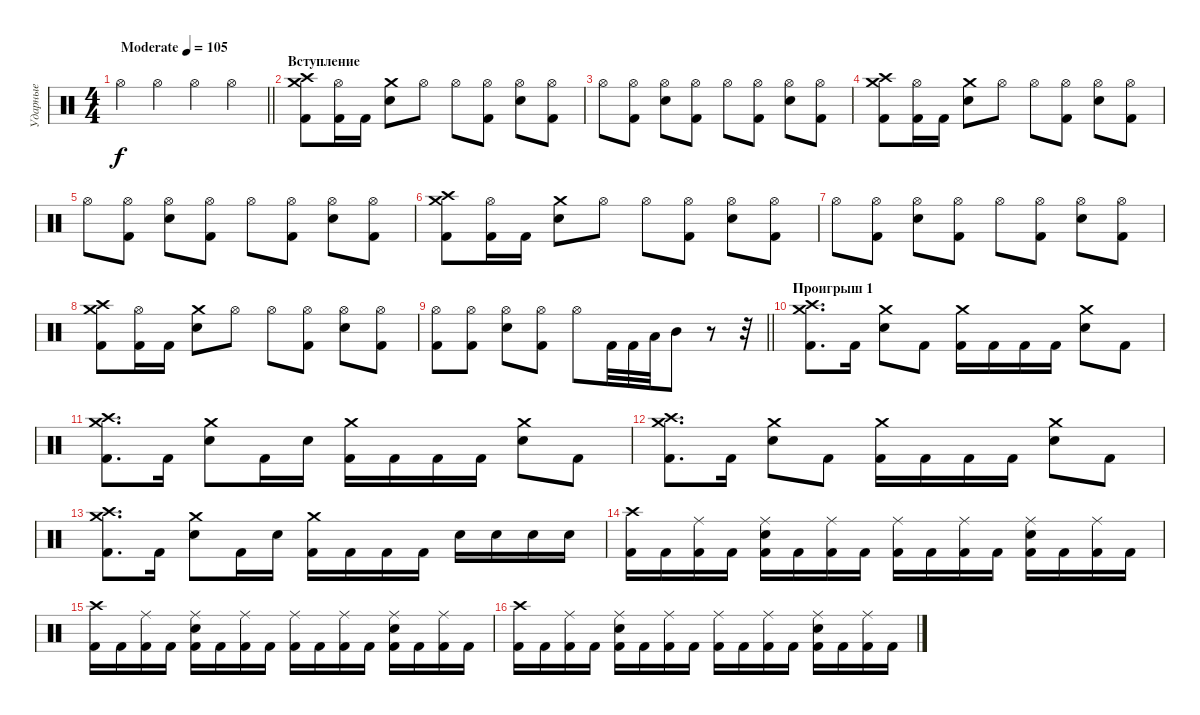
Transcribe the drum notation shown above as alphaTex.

\track ("Ударные" "Ударные") {instrument percussion}
\staff
\articulation defaults
\ts (4 4)
\tempo (105 "Moderate")
\clef neutral
\barLineRight lightlight
\ks c "Hi-Hat (open)".4{dy f} "Hi-Hat (open)".4 "Hi-Hat (open)".4 "Hi-Hat (open)".4
|
\section ("" "Вступление")
("Crash medium (hit)" "Crash high (hit)" "Kick (hit) 2").8 ("Hi-Hat (open)" "Kick (hit) 2").16 "Kick (hit) 2".16 ("Crash medium (hit)" "Electric Snare (hit)").8 "Hi-Hat (open)".8 "Hi-Hat (open)".8 ("Hi-Hat (open)" "Kick (hit) 2").8 ("Hi-Hat (open)" "Electric Snare (hit)").8 ("Hi-Hat (open)" "Kick (hit) 2").8 |
"Hi-Hat (open)".8 ("Hi-Hat (open)" "Kick (hit) 2").8 ("Hi-Hat (open)" "Electric Snare (hit)").8 ("Hi-Hat (open)" "Kick (hit) 2").8 "Hi-Hat (open)".8 ("Hi-Hat (open)" "Kick (hit) 2").8 ("Hi-Hat (open)" "Electric Snare (hit)").8 ("Hi-Hat (open)" "Kick (hit) 2").8 |
("Crash medium (hit)" "Crash high (hit)" "Kick (hit) 2").8 ("Hi-Hat (open)" "Kick (hit) 2").16 "Kick (hit) 2".16 ("Crash medium (hit)" "Electric Snare (hit)").8 "Hi-Hat (open)".8 "Hi-Hat (open)".8 ("Hi-Hat (open)" "Kick (hit) 2").8 ("Hi-Hat (open)" "Electric Snare (hit)").8 ("Hi-Hat (open)" "Kick (hit) 2").8 |
"Hi-Hat (open)".8 ("Hi-Hat (open)" "Kick (hit) 2").8 ("Hi-Hat (open)" "Electric Snare (hit)").8 ("Hi-Hat (open)" "Kick (hit) 2").8 "Hi-Hat (open)".8 ("Hi-Hat (open)" "Kick (hit) 2").8 ("Hi-Hat (open)" "Electric Snare (hit)").8 ("Hi-Hat (open)" "Kick (hit) 2").8 |
("Crash medium (hit)" "Crash high (hit)" "Kick (hit) 2").8 ("Hi-Hat (open)" "Kick (hit) 2").16 "Kick (hit) 2".16 ("Crash medium (hit)" "Electric Snare (hit)").8 "Hi-Hat (open)".8 "Hi-Hat (open)".8 ("Hi-Hat (open)" "Kick (hit) 2").8 ("Hi-Hat (open)" "Electric Snare (hit)").8 ("Hi-Hat (open)" "Kick (hit) 2").8 |
"Hi-Hat (open)".8 ("Hi-Hat (open)" "Kick (hit) 2").8 ("Hi-Hat (open)" "Electric Snare (hit)").8 ("Hi-Hat (open)" "Kick (hit) 2").8 "Hi-Hat (open)".8 ("Hi-Hat (open)" "Kick (hit) 2").8 ("Hi-Hat (open)" "Electric Snare (hit)").8 ("Hi-Hat (open)" "Kick (hit) 2").8 |
("Crash medium (hit)" "Crash high (hit)" "Kick (hit) 2").8 ("Hi-Hat (open)" "Kick (hit) 2").16 "Kick (hit) 2".16 ("Crash medium (hit)" "Electric Snare (hit)").8 "Hi-Hat (open)".8 "Hi-Hat (open)".8 ("Hi-Hat (open)" "Kick (hit) 2").8 ("Hi-Hat (open)" "Electric Snare (hit)").8 ("Hi-Hat (open)" "Kick (hit) 2").8 |
\barLineRight lightlight
("Hi-Hat (open)" "Kick (hit) 2").8 ("Hi-Hat (open)" "Kick (hit) 2").8 ("Hi-Hat (open)" "Electric Snare (hit)").8 ("Hi-Hat (open)" "Kick (hit) 2").8 "Hi-Hat (open)".8 "Kick (hit) 2".32 "Kick (hit) 2".32 "Low Tom (hit)".32 "Mid Tom (hit)".8 r.8 r.32 |
\section ("" "Проигрыш 1")
("Crash medium (hit)" "Crash high (hit)" "Kick (hit) 2").8{d} "Kick (hit) 2".16 ("Crash medium (hit)" "Electric Snare (hit)").8 "Kick (hit) 2".8 ("Crash medium (hit)" "Kick (hit) 2").16 "Kick (hit) 2".16 "Kick (hit) 2".16 "Kick (hit) 2".16 ("Crash medium (hit)" "Electric Snare (hit)").8 "Kick (hit) 2".8 |
("Crash medium (hit)" "Crash high (hit)" "Kick (hit) 2").8{d} "Kick (hit) 2".16 ("Crash medium (hit)" "Electric Snare (hit)").8 "Kick (hit) 2".16 "Electric Snare (hit)".16 ("Crash medium (hit)" "Kick (hit) 2").16 "Kick (hit) 2".16 "Kick (hit) 2".16 "Kick (hit) 2".16 ("Crash medium (hit)" "Electric Snare (hit)").8 "Kick (hit) 2".8 |
("Crash medium (hit)" "Crash high (hit)" "Kick (hit) 2").8{d} "Kick (hit) 2".16 ("Crash medium (hit)" "Electric Snare (hit)").8 "Kick (hit) 2".8 ("Crash medium (hit)" "Kick (hit) 2").16 "Kick (hit) 2".16 "Kick (hit) 2".16 "Kick (hit) 2".16 ("Crash medium (hit)" "Electric Snare (hit)").8 "Kick (hit) 2".8 |
("Crash medium (hit)" "Crash high (hit)" "Kick (hit) 2").8{d} "Kick (hit) 2".16 ("Crash medium (hit)" "Electric Snare (hit)").8 "Kick (hit) 2".16 "Electric Snare (hit)".16 ("Crash medium (hit)" "Kick (hit) 2").16 "Kick (hit) 2".16 "Kick (hit) 2".16 "Kick (hit) 2".16 "Electric Snare (hit)".16 "Electric Snare (hit)".16 "Electric Snare (hit)".16 "Electric Snare (hit)".16 |
("Crash high (hit)" "Kick (hit) 2").16 "Kick (hit) 2".16 ("Ride (middle)" "Kick (hit) 2").16 "Kick (hit) 2".16 ("Ride (middle)" "Electric Snare (hit)" "Kick (hit) 2").16 "Kick (hit) 2".16 ("Ride (middle)" "Kick (hit) 2").16 "Kick (hit) 2".16 ("Ride (middle)" "Kick (hit) 2").16 "Kick (hit) 2".16 ("Ride (middle)" "Kick (hit) 2").16 "Kick (hit) 2".16 ("Ride (middle)" "Electric Snare (hit)" "Kick (hit) 2").16 "Kick (hit) 2".16 ("Ride (middle)" "Kick (hit) 2").16 "Kick (hit) 2".16 |
("Crash high (hit)" "Kick (hit) 2").16 "Kick (hit) 2".16 ("Ride (middle)" "Kick (hit) 2").16 "Kick (hit) 2".16 ("Ride (middle)" "Electric Snare (hit)" "Kick (hit) 2").16 "Kick (hit) 2".16 ("Ride (middle)" "Kick (hit) 2").16 "Kick (hit) 2".16 ("Ride (middle)" "Kick (hit) 2").16 "Kick (hit) 2".16 ("Ride (middle)" "Kick (hit) 2").16 "Kick (hit) 2".16 ("Ride (middle)" "Electric Snare (hit)" "Kick (hit) 2").16 "Kick (hit) 2".16 ("Ride (middle)" "Kick (hit) 2").16 "Kick (hit) 2".16 |
("Crash high (hit)" "Kick (hit) 2").16 "Kick (hit) 2".16 ("Ride (middle)" "Kick (hit) 2").16 "Kick (hit) 2".16 ("Ride (middle)" "Electric Snare (hit)" "Kick (hit) 2").16 "Kick (hit) 2".16 ("Ride (middle)" "Kick (hit) 2").16 "Kick (hit) 2".16 ("Ride (middle)" "Kick (hit) 2").16 "Kick (hit) 2".16 ("Ride (middle)" "Kick (hit) 2").16 "Kick (hit) 2".16 ("Ride (middle)" "Electric Snare (hit)" "Kick (hit) 2").16 "Kick (hit) 2".16 ("Ride (middle)" "Kick (hit) 2").16 "Kick (hit) 2".16
